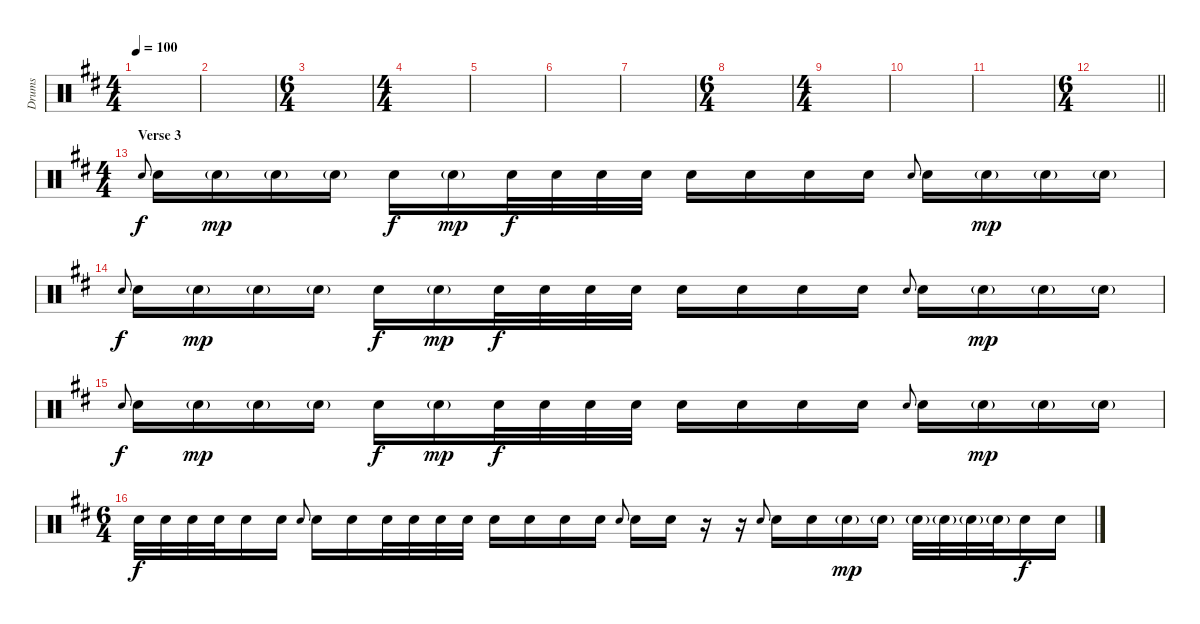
\track ("Drums" "Drums") {instrument percussion}
\staff {score}
\articulation defaults
\ts (4 4)
\tempo 100
\clef neutral
\ks d
|
|
\ts (6 4)
|
\ts (4 4)
|
|
|
|
\ts (6 4)
|
\ts (4 4)
|
|
|
\ts (6 4)
\barLineRight lightlight
|
\ts (4 4)
\section ("" "Verse 3")
"Snare (hit) 2".8{gr onbeat} "Snare (hit) 2".16 "Snare (hit) 2"{g}.16{dy mp} "Snare (hit) 2"{g}.16 "Snare (hit) 2"{g}.16 "Snare (hit) 2".16{dy f} "Snare (hit) 2"{g}.16{dy mp} "Snare (hit) 2".32{dy f} "Snare (hit) 2".32 "Snare (hit) 2".32 "Snare (hit) 2".32 "Snare (hit) 2".16 "Snare (hit) 2".16 "Snare (hit) 2".16 "Snare (hit) 2".16 "Snare (hit) 2".8{gr onbeat} "Snare (hit) 2".16 "Snare (hit) 2"{g}.16{dy mp} "Snare (hit) 2"{g}.16 "Snare (hit) 2"{g}.16 |
"Snare (hit) 2".8{gr onbeat dy f} "Snare (hit) 2".16 "Snare (hit) 2"{g}.16{dy mp} "Snare (hit) 2"{g}.16 "Snare (hit) 2"{g}.16 "Snare (hit) 2".16{dy f} "Snare (hit) 2"{g}.16{dy mp} "Snare (hit) 2".32{dy f} "Snare (hit) 2".32 "Snare (hit) 2".32 "Snare (hit) 2".32 "Snare (hit) 2".16 "Snare (hit) 2".16 "Snare (hit) 2".16 "Snare (hit) 2".16 "Snare (hit) 2".8{gr onbeat} "Snare (hit) 2".16 "Snare (hit) 2"{g}.16{dy mp} "Snare (hit) 2"{g}.16 "Snare (hit) 2"{g}.16 |
"Snare (hit) 2".8{gr onbeat dy f} "Snare (hit) 2".16 "Snare (hit) 2"{g}.16{dy mp} "Snare (hit) 2"{g}.16 "Snare (hit) 2"{g}.16 "Snare (hit) 2".16{dy f} "Snare (hit) 2"{g}.16{dy mp} "Snare (hit) 2".32{dy f} "Snare (hit) 2".32 "Snare (hit) 2".32 "Snare (hit) 2".32 "Snare (hit) 2".16 "Snare (hit) 2".16 "Snare (hit) 2".16 "Snare (hit) 2".16 "Snare (hit) 2".8{gr onbeat} "Snare (hit) 2".16 "Snare (hit) 2"{g}.16{dy mp} "Snare (hit) 2"{g}.16 "Snare (hit) 2"{g}.16 |
\ts (6 4)
"Snare (hit) 2".32{dy f} "Snare (hit) 2".32 "Snare (hit) 2".32 "Snare (hit) 2".32 "Snare (hit) 2".16 "Snare (hit) 2".16 "Snare (hit) 2".8{gr onbeat} "Snare (hit) 2".16 "Snare (hit) 2".16 "Snare (hit) 2".32 "Snare (hit) 2".32 "Snare (hit) 2".32 "Snare (hit) 2".32 "Snare (hit) 2".16 "Snare (hit) 2".16 "Snare (hit) 2".16 "Snare (hit) 2".16 "Snare (hit) 2".8{gr onbeat} "Snare (hit) 2".16 "Snare (hit) 2".16 r.16 r.16 "Snare (hit) 2".8{gr onbeat} "Snare (hit) 2".16 "Snare (hit) 2".16 "Snare (hit) 2"{g}.16{dy mp} "Snare (hit) 2"{g}.16 "Snare (hit) 2"{g}.32 "Snare (hit) 2"{g}.32 "Snare (hit) 2"{g}.32 "Snare (hit) 2"{g}.32 "Snare (hit) 2".16{dy f} "Snare (hit) 2".16
